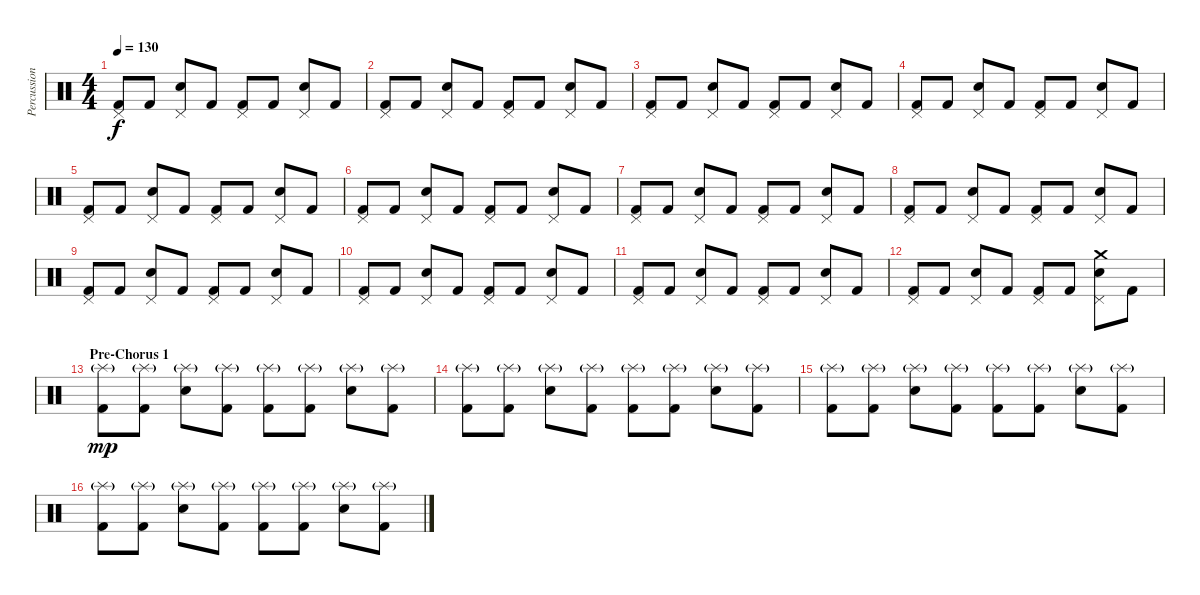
\track ("Percussions" "Percussion") {instrument percussion}
\staff {score}
\articulation defaults
\ts (4 4)
\tempo 130
\clef neutral
\ks c
("Pedal Hi-Hat (hit)" "Kick (hit) 2").8{dy f} "Kick (hit) 2".8 ("Pedal Hi-Hat (hit)" "Snare (hit) 2").8 "Kick (hit) 2".8 ("Pedal Hi-Hat (hit)" "Kick (hit) 2").8 "Kick (hit) 2".8 ("Pedal Hi-Hat (hit)" "Snare (hit) 2").8 "Kick (hit) 2".8 |
("Pedal Hi-Hat (hit)" "Kick (hit) 2").8 "Kick (hit) 2".8 ("Pedal Hi-Hat (hit)" "Snare (hit) 2").8 "Kick (hit) 2".8 ("Pedal Hi-Hat (hit)" "Kick (hit) 2").8 "Kick (hit) 2".8 ("Pedal Hi-Hat (hit)" "Snare (hit) 2").8 "Kick (hit) 2".8 |
("Pedal Hi-Hat (hit)" "Kick (hit) 2").8 "Kick (hit) 2".8 ("Pedal Hi-Hat (hit)" "Snare (hit) 2").8 "Kick (hit) 2".8 ("Pedal Hi-Hat (hit)" "Kick (hit) 2").8 "Kick (hit) 2".8 ("Pedal Hi-Hat (hit)" "Snare (hit) 2").8 "Kick (hit) 2".8 |
("Pedal Hi-Hat (hit)" "Kick (hit) 2").8 "Kick (hit) 2".8 ("Pedal Hi-Hat (hit)" "Snare (hit) 2").8 "Kick (hit) 2".8 ("Pedal Hi-Hat (hit)" "Kick (hit) 2").8 "Kick (hit) 2".8 ("Pedal Hi-Hat (hit)" "Snare (hit) 2").8 "Kick (hit) 2".8 |
("Pedal Hi-Hat (hit)" "Kick (hit) 2").8 "Kick (hit) 2".8 ("Pedal Hi-Hat (hit)" "Snare (hit) 2").8 "Kick (hit) 2".8 ("Pedal Hi-Hat (hit)" "Kick (hit) 2").8 "Kick (hit) 2".8 ("Pedal Hi-Hat (hit)" "Snare (hit) 2").8 "Kick (hit) 2".8 |
("Pedal Hi-Hat (hit)" "Kick (hit) 2").8 "Kick (hit) 2".8 ("Pedal Hi-Hat (hit)" "Snare (hit) 2").8 "Kick (hit) 2".8 ("Pedal Hi-Hat (hit)" "Kick (hit) 2").8 "Kick (hit) 2".8 ("Pedal Hi-Hat (hit)" "Snare (hit) 2").8 "Kick (hit) 2".8 |
("Pedal Hi-Hat (hit)" "Kick (hit) 2").8 "Kick (hit) 2".8 ("Pedal Hi-Hat (hit)" "Snare (hit) 2").8 "Kick (hit) 2".8 ("Pedal Hi-Hat (hit)" "Kick (hit) 2").8 "Kick (hit) 2".8 ("Pedal Hi-Hat (hit)" "Snare (hit) 2").8 "Kick (hit) 2".8 |
("Pedal Hi-Hat (hit)" "Kick (hit) 2").8 "Kick (hit) 2".8 ("Pedal Hi-Hat (hit)" "Snare (hit) 2").8 "Kick (hit) 2".8 ("Pedal Hi-Hat (hit)" "Kick (hit) 2").8 "Kick (hit) 2".8 ("Pedal Hi-Hat (hit)" "Snare (hit) 2").8 "Kick (hit) 2".8 |
("Pedal Hi-Hat (hit)" "Kick (hit) 2").8 "Kick (hit) 2".8 ("Pedal Hi-Hat (hit)" "Snare (hit) 2").8 "Kick (hit) 2".8 ("Pedal Hi-Hat (hit)" "Kick (hit) 2").8 "Kick (hit) 2".8 ("Pedal Hi-Hat (hit)" "Snare (hit) 2").8 "Kick (hit) 2".8 |
("Pedal Hi-Hat (hit)" "Kick (hit) 2").8 "Kick (hit) 2".8 ("Pedal Hi-Hat (hit)" "Snare (hit) 2").8 "Kick (hit) 2".8 ("Pedal Hi-Hat (hit)" "Kick (hit) 2").8 "Kick (hit) 2".8 ("Pedal Hi-Hat (hit)" "Snare (hit) 2").8 "Kick (hit) 2".8 |
("Pedal Hi-Hat (hit)" "Kick (hit) 2").8 "Kick (hit) 2".8 ("Pedal Hi-Hat (hit)" "Snare (hit) 2").8 "Kick (hit) 2".8 ("Pedal Hi-Hat (hit)" "Kick (hit) 2").8 "Kick (hit) 2".8 ("Pedal Hi-Hat (hit)" "Snare (hit) 2").8 "Kick (hit) 2".8 |
("Pedal Hi-Hat (hit)" "Kick (hit) 2").8 "Kick (hit) 2".8 ("Pedal Hi-Hat (hit)" "Snare (hit) 2").8 "Kick (hit) 2".8 ("Pedal Hi-Hat (hit)" "Kick (hit) 2").8 "Kick (hit) 2".8 ("Crash medium (hit)" "Pedal Hi-Hat (hit)" "Snare (hit) 2").8 "Kick (hit) 2".8 |
\section ("" "Pre-Chorus 1")
("Splash (hit)"{g} "Kick (hit) 2").8{dy mp} ("Splash (hit)"{g} "Kick (hit) 2").8 ("Splash (hit)"{g} "Snare (hit) 2").8 ("Splash (hit)"{g} "Kick (hit) 2").8 ("Splash (hit)"{g} "Kick (hit) 2").8 ("Splash (hit)"{g} "Kick (hit) 2").8 ("Splash (hit)"{g} "Snare (hit) 2").8 ("Splash (hit)"{g} "Kick (hit) 2").8 |
("Splash (hit)"{g} "Kick (hit) 2").8 ("Splash (hit)"{g} "Kick (hit) 2").8 ("Splash (hit)"{g} "Snare (hit) 2").8 ("Splash (hit)"{g} "Kick (hit) 2").8 ("Splash (hit)"{g} "Kick (hit) 2").8 ("Splash (hit)"{g} "Kick (hit) 2").8 ("Splash (hit)"{g} "Snare (hit) 2").8 ("Splash (hit)"{g} "Kick (hit) 2").8 |
("Splash (hit)"{g} "Kick (hit) 2").8 ("Splash (hit)"{g} "Kick (hit) 2").8 ("Splash (hit)"{g} "Snare (hit) 2").8 ("Splash (hit)"{g} "Kick (hit) 2").8 ("Splash (hit)"{g} "Kick (hit) 2").8 ("Splash (hit)"{g} "Kick (hit) 2").8 ("Splash (hit)"{g} "Snare (hit) 2").8 ("Splash (hit)"{g} "Kick (hit) 2").8 |
("Splash (hit)"{g} "Kick (hit) 2").8 ("Splash (hit)"{g} "Kick (hit) 2").8 ("Splash (hit)"{g} "Snare (hit) 2").8 ("Splash (hit)"{g} "Kick (hit) 2").8 ("Splash (hit)"{g} "Kick (hit) 2").8 ("Splash (hit)"{g} "Kick (hit) 2").8 ("Splash (hit)"{g} "Snare (hit) 2").8 ("Splash (hit)"{g} "Kick (hit) 2").8
